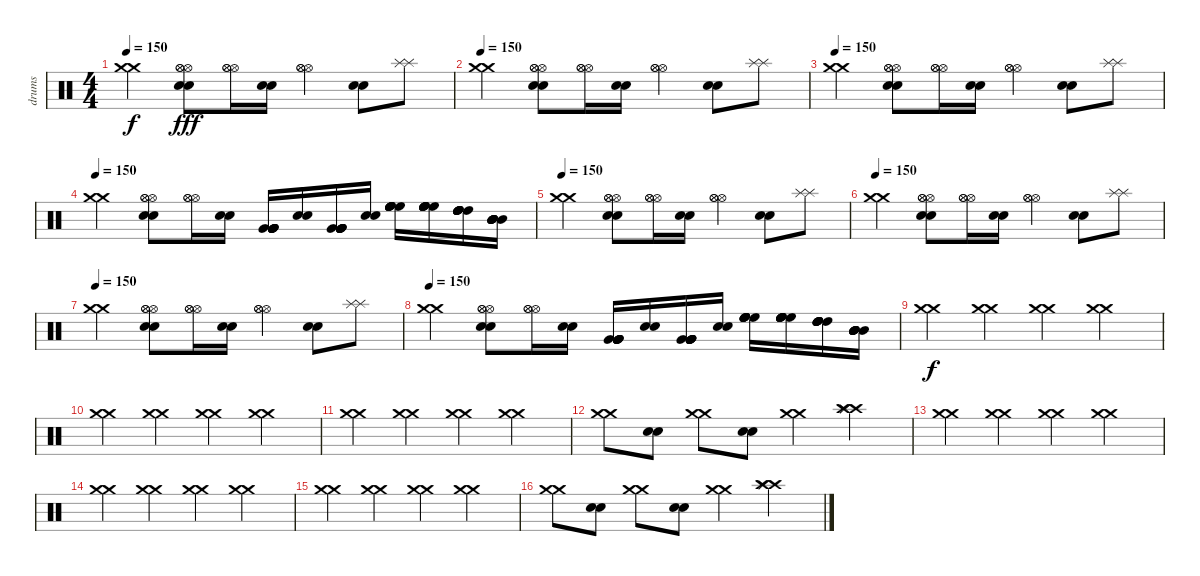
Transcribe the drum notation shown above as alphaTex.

\track ("drums" "drums") {instrument percussion}
\staff {score}
\articulation defaults
\ts (4 4)
\tempo 150
\clef neutral
\ks c
("Crash medium (hit)" "Crash medium (hit)").4{dy f volume 16} ("Snare (hit) 2" "Snare (hit) 2" "Hi-Hat (open)" "Hi-Hat (open)" "Hi-Hat (open)").8{dy fff} ("Hi-Hat (open)" "Hi-Hat (open)" "Hi-Hat (open)").16 ("Snare (hit) 2" "Snare (hit) 2").16 ("Hi-Hat (open)" "Hi-Hat (open)" "Hi-Hat (open)").4 ("Snare (hit) 2" "Snare (hit) 2").8 ("Splash (hit)" "Splash (hit)").8 |
\tempo 150
("Crash medium (hit)" "Crash medium (hit)").4 ("Snare (hit) 2" "Snare (hit) 2" "Hi-Hat (open)" "Hi-Hat (open)" "Hi-Hat (open)").8 ("Hi-Hat (open)" "Hi-Hat (open)" "Hi-Hat (open)").16 ("Snare (hit) 2" "Snare (hit) 2").16 ("Hi-Hat (open)" "Hi-Hat (open)" "Hi-Hat (open)").4 ("Snare (hit) 2" "Snare (hit) 2").8 ("Splash (hit)" "Splash (hit)").8 |
\tempo 150
("Crash medium (hit)" "Crash medium (hit)").4 ("Snare (hit) 2" "Snare (hit) 2" "Hi-Hat (open)" "Hi-Hat (open)" "Hi-Hat (open)").8 ("Hi-Hat (open)" "Hi-Hat (open)" "Hi-Hat (open)").16 ("Snare (hit) 2" "Snare (hit) 2").16 ("Hi-Hat (open)" "Hi-Hat (open)" "Hi-Hat (open)").4 ("Snare (hit) 2" "Snare (hit) 2").8 ("Splash (hit)" "Splash (hit)").8 |
\tempo 150
("Crash medium (hit)" "Crash medium (hit)").4 ("Snare (hit) 2" "Snare (hit) 2" "Hi-Hat (open)" "Hi-Hat (open)" "Hi-Hat (open)").8 ("Hi-Hat (open)" "Hi-Hat (open)" "Hi-Hat (open)").16 ("Snare (hit) 2" "Snare (hit) 2").16 ("Very Low Tom (hit)" "Very Low Tom (hit)" "Very Low Tom (hit)" "Very Low Tom (hit)" "Very Low Tom (hit)" "Very Low Tom (hit)").16 ("Snare (hit) 2" "Snare (hit) 2").16 ("Very Low Tom (hit)" "Very Low Tom (hit)" "Very Low Tom (hit)" "Very Low Tom (hit)" "Very Low Tom (hit)" "Very Low Tom (hit)").16 ("Snare (hit) 2" "Snare (hit) 2").16 ("High Floor Tom (hit)" "High Floor Tom (hit)" "High Floor Tom (hit)" "High Floor Tom (hit)" "High Floor Tom (hit)" "High Floor Tom (hit)").16 ("High Floor Tom (hit)" "High Floor Tom (hit)" "High Floor Tom (hit)" "High Floor Tom (hit)" "High Floor Tom (hit)" "High Floor Tom (hit)").16 ("High Tom (hit)" "High Tom (hit)" "High Tom (hit)" "High Tom (hit)" "High Tom (hit)" "High Tom (hit)").16 ("Mid Tom (hit)" "Mid Tom (hit)" "Mid Tom (hit)" "Mid Tom (hit)" "Mid Tom (hit)" "Mid Tom (hit)").16 |
\tempo 150
("Crash medium (hit)" "Crash medium (hit)").4 ("Snare (hit) 2" "Snare (hit) 2" "Hi-Hat (open)" "Hi-Hat (open)" "Hi-Hat (open)").8 ("Hi-Hat (open)" "Hi-Hat (open)" "Hi-Hat (open)").16 ("Snare (hit) 2" "Snare (hit) 2").16 ("Hi-Hat (open)" "Hi-Hat (open)" "Hi-Hat (open)").4 ("Snare (hit) 2" "Snare (hit) 2").8 ("Splash (hit)" "Splash (hit)").8 |
\tempo 150
("Crash medium (hit)" "Crash medium (hit)").4 ("Snare (hit) 2" "Snare (hit) 2" "Hi-Hat (open)" "Hi-Hat (open)" "Hi-Hat (open)").8 ("Hi-Hat (open)" "Hi-Hat (open)" "Hi-Hat (open)").16 ("Snare (hit) 2" "Snare (hit) 2").16 ("Hi-Hat (open)" "Hi-Hat (open)" "Hi-Hat (open)").4 ("Snare (hit) 2" "Snare (hit) 2").8 ("Splash (hit)" "Splash (hit)").8 |
\tempo 150
("Crash medium (hit)" "Crash medium (hit)").4 ("Snare (hit) 2" "Snare (hit) 2" "Hi-Hat (open)" "Hi-Hat (open)" "Hi-Hat (open)").8 ("Hi-Hat (open)" "Hi-Hat (open)" "Hi-Hat (open)").16 ("Snare (hit) 2" "Snare (hit) 2").16 ("Hi-Hat (open)" "Hi-Hat (open)" "Hi-Hat (open)").4 ("Snare (hit) 2" "Snare (hit) 2").8 ("Splash (hit)" "Splash (hit)").8 |
\tempo 150
("Crash medium (hit)" "Crash medium (hit)").4 ("Snare (hit) 2" "Snare (hit) 2" "Hi-Hat (open)" "Hi-Hat (open)" "Hi-Hat (open)").8 ("Hi-Hat (open)" "Hi-Hat (open)" "Hi-Hat (open)").16 ("Snare (hit) 2" "Snare (hit) 2").16 ("Very Low Tom (hit)" "Very Low Tom (hit)" "Very Low Tom (hit)" "Very Low Tom (hit)" "Very Low Tom (hit)" "Very Low Tom (hit)").16 ("Snare (hit) 2" "Snare (hit) 2").16 ("Very Low Tom (hit)" "Very Low Tom (hit)" "Very Low Tom (hit)" "Very Low Tom (hit)" "Very Low Tom (hit)" "Very Low Tom (hit)").16 ("Snare (hit) 2" "Snare (hit) 2").16 ("High Floor Tom (hit)" "High Floor Tom (hit)" "High Floor Tom (hit)" "High Floor Tom (hit)" "High Floor Tom (hit)" "High Floor Tom (hit)").16 ("High Floor Tom (hit)" "High Floor Tom (hit)" "High Floor Tom (hit)" "High Floor Tom (hit)" "High Floor Tom (hit)" "High Floor Tom (hit)").16 ("High Tom (hit)" "High Tom (hit)" "High Tom (hit)" "High Tom (hit)" "High Tom (hit)" "High Tom (hit)").16 ("Mid Tom (hit)" "Mid Tom (hit)" "Mid Tom (hit)" "Mid Tom (hit)" "Mid Tom (hit)" "Mid Tom (hit)").16 |
("Crash medium (hit)" "Crash medium (hit)").4{dy f} ("Crash medium (hit)" "Crash medium (hit)").4 ("Crash medium (hit)" "Crash medium (hit)").4 ("Crash medium (hit)" "Crash medium (hit)").4 |
("Crash medium (hit)" "Crash medium (hit)").4 ("Crash medium (hit)" "Crash medium (hit)").4 ("Crash medium (hit)" "Crash medium (hit)").4 ("Crash medium (hit)" "Crash medium (hit)").4 |
("Crash medium (hit)" "Crash medium (hit)").4 ("Crash medium (hit)" "Crash medium (hit)").4 ("Crash medium (hit)" "Crash medium (hit)").4 ("Crash medium (hit)" "Crash medium (hit)").4 |
("Crash medium (hit)" "Crash medium (hit)").8 ("Snare (hit) 2" "Snare (hit) 2").8 ("Crash medium (hit)" "Crash medium (hit)").8 ("Snare (hit) 2" "Snare (hit) 2").8 ("Crash medium (hit)" "Crash medium (hit)").4 ("Crash high (hit)" "Crash high (hit)" "Splash (hit)" "Splash (hit)").4 |
("Crash medium (hit)" "Crash medium (hit)").4 ("Crash medium (hit)" "Crash medium (hit)").4 ("Crash medium (hit)" "Crash medium (hit)").4 ("Crash medium (hit)" "Crash medium (hit)").4 |
("Crash medium (hit)" "Crash medium (hit)").4 ("Crash medium (hit)" "Crash medium (hit)").4 ("Crash medium (hit)" "Crash medium (hit)").4 ("Crash medium (hit)" "Crash medium (hit)").4 |
("Crash medium (hit)" "Crash medium (hit)").4 ("Crash medium (hit)" "Crash medium (hit)").4 ("Crash medium (hit)" "Crash medium (hit)").4 ("Crash medium (hit)" "Crash medium (hit)").4 |
("Crash medium (hit)" "Crash medium (hit)").8 ("Snare (hit) 2" "Snare (hit) 2").8 ("Crash medium (hit)" "Crash medium (hit)").8 ("Snare (hit) 2" "Snare (hit) 2").8 ("Crash medium (hit)" "Crash medium (hit)").4 ("Crash high (hit)" "Crash high (hit)" "Splash (hit)" "Splash (hit)").4
